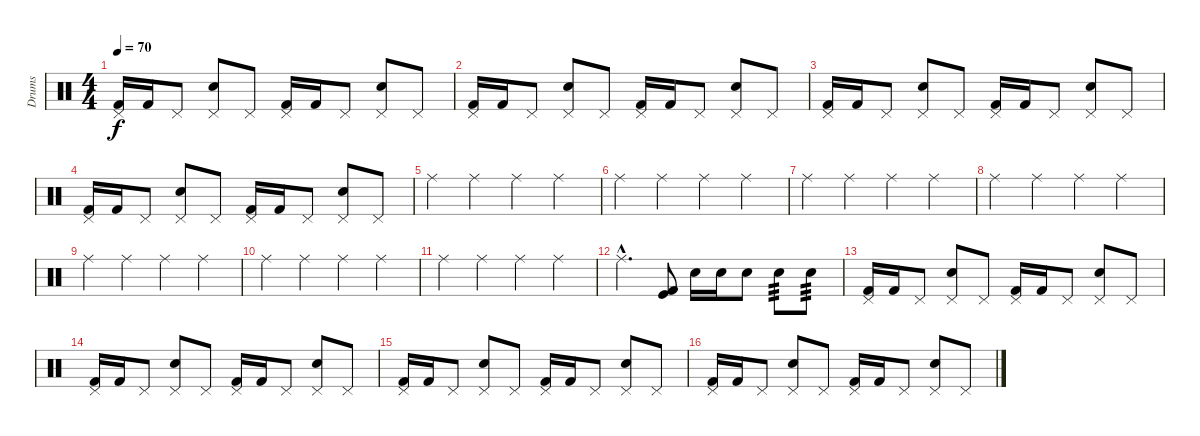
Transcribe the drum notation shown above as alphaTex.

\track ("Drums" "Drums") {instrument percussion}
\staff {score}
\articulation defaults
\ts (4 4)
\tempo 70
\clef neutral
\ks c
("Pedal Hi-Hat (hit)" "Kick (hit) 2").16{dy f} "Kick (hit) 2".16 "Pedal Hi-Hat (hit)".8 ("Pedal Hi-Hat (hit)" "Electric Snare (hit)").8 "Pedal Hi-Hat (hit)".8 ("Pedal Hi-Hat (hit)" "Kick (hit) 2").16 "Kick (hit) 2".16 "Pedal Hi-Hat (hit)".8 ("Pedal Hi-Hat (hit)" "Electric Snare (hit)").8 "Pedal Hi-Hat (hit)".8 |
("Pedal Hi-Hat (hit)" "Kick (hit) 2").16 "Kick (hit) 2".16 "Pedal Hi-Hat (hit)".8 ("Pedal Hi-Hat (hit)" "Electric Snare (hit)").8 "Pedal Hi-Hat (hit)".8 ("Pedal Hi-Hat (hit)" "Kick (hit) 2").16 "Kick (hit) 2".16 "Pedal Hi-Hat (hit)".8 ("Pedal Hi-Hat (hit)" "Electric Snare (hit)").8 "Pedal Hi-Hat (hit)".8 |
("Pedal Hi-Hat (hit)" "Kick (hit) 2").16 "Kick (hit) 2".16 "Pedal Hi-Hat (hit)".8 ("Pedal Hi-Hat (hit)" "Electric Snare (hit)").8 "Pedal Hi-Hat (hit)".8 ("Pedal Hi-Hat (hit)" "Kick (hit) 2").16 "Kick (hit) 2".16 "Pedal Hi-Hat (hit)".8 ("Pedal Hi-Hat (hit)" "Electric Snare (hit)").8 "Pedal Hi-Hat (hit)".8 |
("Pedal Hi-Hat (hit)" "Kick (hit) 2").16 "Kick (hit) 2".16 "Pedal Hi-Hat (hit)".8 ("Pedal Hi-Hat (hit)" "Electric Snare (hit)").8 "Pedal Hi-Hat (hit)".8 ("Pedal Hi-Hat (hit)" "Kick (hit) 2").16 "Kick (hit) 2".16 "Pedal Hi-Hat (hit)".8 ("Pedal Hi-Hat (hit)" "Electric Snare (hit)").8 "Pedal Hi-Hat (hit)".8 |
"Ride (middle)".4 "Ride (middle)".4 "Ride (middle)".4 "Ride (middle)".4 |
"Ride (middle)".4 "Ride (middle)".4 "Ride (middle)".4 "Ride (middle)".4 |
"Ride (middle)".4 "Ride (middle)".4 "Ride (middle)".4 "Ride (middle)".4 |
"Ride (middle)".4 "Ride (middle)".4 "Ride (middle)".4 "Ride (middle)".4 |
"Ride (middle)".4 "Ride (middle)".4 "Ride (middle)".4 "Ride (middle)".4 |
"Ride (middle)".4 "Ride (middle)".4 "Ride (middle)".4 "Ride (middle)".4 |
"Ride (middle)".4 "Ride (middle)".4 "Ride (middle)".4 "Ride (middle)".4 |
"Ride (middle)"{hac}.4{d} ("Kick (hit) 2" "Kick (hit)").8 "Electric Snare (hit)".16 "Electric Snare (hit)".16 "Electric Snare (hit)".8 "Electric Snare (hit)".8{tp 3} "Electric Snare (hit)".8{tp 3} |
("Pedal Hi-Hat (hit)" "Kick (hit) 2").16 "Kick (hit) 2".16 "Pedal Hi-Hat (hit)".8 ("Pedal Hi-Hat (hit)" "Electric Snare (hit)").8 "Pedal Hi-Hat (hit)".8 ("Pedal Hi-Hat (hit)" "Kick (hit) 2").16 "Kick (hit) 2".16 "Pedal Hi-Hat (hit)".8 ("Pedal Hi-Hat (hit)" "Electric Snare (hit)").8 "Pedal Hi-Hat (hit)".8 |
("Pedal Hi-Hat (hit)" "Kick (hit) 2").16 "Kick (hit) 2".16 "Pedal Hi-Hat (hit)".8 ("Pedal Hi-Hat (hit)" "Electric Snare (hit)").8 "Pedal Hi-Hat (hit)".8 ("Pedal Hi-Hat (hit)" "Kick (hit) 2").16 "Kick (hit) 2".16 "Pedal Hi-Hat (hit)".8 ("Pedal Hi-Hat (hit)" "Electric Snare (hit)").8 "Pedal Hi-Hat (hit)".8 |
("Pedal Hi-Hat (hit)" "Kick (hit) 2").16 "Kick (hit) 2".16 "Pedal Hi-Hat (hit)".8 ("Pedal Hi-Hat (hit)" "Electric Snare (hit)").8 "Pedal Hi-Hat (hit)".8 ("Pedal Hi-Hat (hit)" "Kick (hit) 2").16 "Kick (hit) 2".16 "Pedal Hi-Hat (hit)".8 ("Pedal Hi-Hat (hit)" "Electric Snare (hit)").8 "Pedal Hi-Hat (hit)".8 |
("Pedal Hi-Hat (hit)" "Kick (hit) 2").16 "Kick (hit) 2".16 "Pedal Hi-Hat (hit)".8 ("Pedal Hi-Hat (hit)" "Electric Snare (hit)").8 "Pedal Hi-Hat (hit)".8 ("Pedal Hi-Hat (hit)" "Kick (hit) 2").16 "Kick (hit) 2".16 "Pedal Hi-Hat (hit)".8 ("Pedal Hi-Hat (hit)" "Electric Snare (hit)").8 "Pedal Hi-Hat (hit)".8
